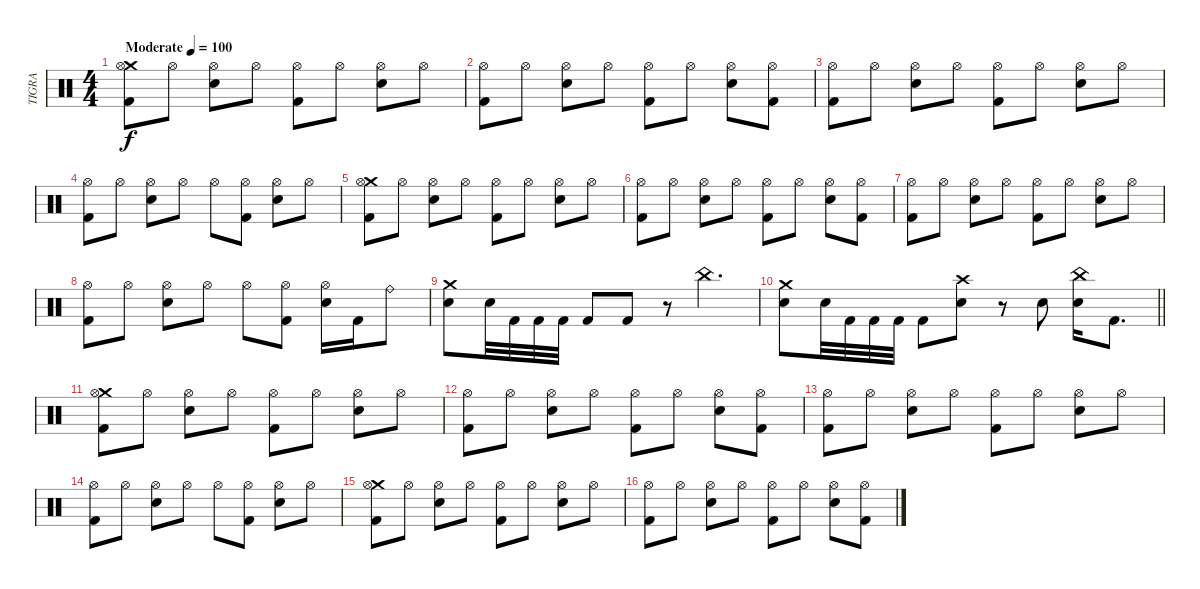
\track ("TIGRA" "TIGRA") {instrument percussion}
\staff {score}
\articulation defaults
\ts (4 4)
\tempo (100 "Moderate")
\clef neutral
\ks c
("Crash medium (hit)" "Hi-Hat (open)" "Kick (hit) 2").8{dy f} "Hi-Hat (open)".8 ("Hi-Hat (open)" "Snare (hit) 2").8 "Hi-Hat (open)".8 ("Hi-Hat (open)" "Kick (hit) 2").8 "Hi-Hat (open)".8 ("Hi-Hat (open)" "Snare (hit) 2").8 "Hi-Hat (open)".8 |
("Hi-Hat (open)" "Kick (hit) 2").8 "Hi-Hat (open)".8 ("Hi-Hat (open)" "Snare (hit) 2").8 "Hi-Hat (open)".8 ("Hi-Hat (open)" "Kick (hit) 2").8 "Hi-Hat (open)".8 ("Hi-Hat (open)" "Snare (hit) 2").8 ("Hi-Hat (open)" "Kick (hit) 2").8 |
("Hi-Hat (open)" "Kick (hit) 2").8 "Hi-Hat (open)".8 ("Hi-Hat (open)" "Snare (hit) 2").8 "Hi-Hat (open)".8 ("Hi-Hat (open)" "Kick (hit) 2").8 "Hi-Hat (open)".8 ("Hi-Hat (open)" "Snare (hit) 2").8 "Hi-Hat (open)".8 |
("Hi-Hat (open)" "Kick (hit) 2").8 "Hi-Hat (open)".8 ("Hi-Hat (open)" "Snare (hit) 2").8 "Hi-Hat (open)".8 "Hi-Hat (open)".8 ("Hi-Hat (open)" "Kick (hit) 2").8 ("Hi-Hat (open)" "Snare (hit) 2").8 "Hi-Hat (open)".8 |
("Crash medium (hit)" "Hi-Hat (open)" "Kick (hit) 2").8 "Hi-Hat (open)".8 ("Hi-Hat (open)" "Snare (hit) 2").8 "Hi-Hat (open)".8 ("Hi-Hat (open)" "Kick (hit) 2").8 "Hi-Hat (open)".8 ("Hi-Hat (open)" "Snare (hit) 2").8 "Hi-Hat (open)".8 |
("Hi-Hat (open)" "Kick (hit) 2").8 "Hi-Hat (open)".8 ("Hi-Hat (open)" "Snare (hit) 2").8 "Hi-Hat (open)".8 ("Hi-Hat (open)" "Kick (hit) 2").8 "Hi-Hat (open)".8 ("Hi-Hat (open)" "Snare (hit) 2").8 ("Hi-Hat (open)" "Kick (hit) 2").8 |
("Hi-Hat (open)" "Kick (hit) 2").8 "Hi-Hat (open)".8 ("Hi-Hat (open)" "Snare (hit) 2").8 "Hi-Hat (open)".8 ("Hi-Hat (open)" "Kick (hit) 2").8 "Hi-Hat (open)".8 ("Hi-Hat (open)" "Snare (hit) 2").8 "Hi-Hat (open)".8 |
("Hi-Hat (open)" "Kick (hit) 2").8 "Hi-Hat (open)".8 ("Hi-Hat (open)" "Snare (hit) 2").8 "Hi-Hat (open)".8 "Hi-Hat (open)".8 ("Hi-Hat (open)" "Kick (hit) 2").8 ("Hi-Hat (open)" "Snare (hit) 2").16 "Kick (hit) 2".16 "Ride (bell)".8 |
("Crash medium (hit)" "Snare (hit) 2").8 "Snare (hit) 2".32 "Kick (hit) 2".32 "Kick (hit) 2".32 "Kick (hit) 2".32 "Kick (hit) 2".8 "Kick (hit) 2".8 r.8 "China (hit)".4{d} |
\barLineRight lightlight
("Crash medium (hit)" "Snare (hit) 2").8 "Snare (hit) 2".32 "Kick (hit) 2".32 "Kick (hit) 2".32 "Kick (hit) 2".32 "Kick (hit) 2".8 ("Crash high (hit)" "Snare (hit) 2").8 r.8 "Snare (hit) 2".8 ("China (hit)" "Snare (hit) 2").16 "Kick (hit) 2".8{d} |
("Crash medium (hit)" "Hi-Hat (open)" "Kick (hit) 2").8 "Hi-Hat (open)".8 ("Hi-Hat (open)" "Snare (hit) 2").8 "Hi-Hat (open)".8 ("Hi-Hat (open)" "Kick (hit) 2").8 "Hi-Hat (open)".8 ("Hi-Hat (open)" "Snare (hit) 2").8 "Hi-Hat (open)".8 |
("Hi-Hat (open)" "Kick (hit) 2").8 "Hi-Hat (open)".8 ("Hi-Hat (open)" "Snare (hit) 2").8 "Hi-Hat (open)".8 ("Hi-Hat (open)" "Kick (hit) 2").8 "Hi-Hat (open)".8 ("Hi-Hat (open)" "Snare (hit) 2").8 ("Hi-Hat (open)" "Kick (hit) 2").8 |
("Hi-Hat (open)" "Kick (hit) 2").8 "Hi-Hat (open)".8 ("Hi-Hat (open)" "Snare (hit) 2").8 "Hi-Hat (open)".8 ("Hi-Hat (open)" "Kick (hit) 2").8 "Hi-Hat (open)".8 ("Hi-Hat (open)" "Snare (hit) 2").8 "Hi-Hat (open)".8 |
("Hi-Hat (open)" "Kick (hit) 2").8 "Hi-Hat (open)".8 ("Hi-Hat (open)" "Snare (hit) 2").8 "Hi-Hat (open)".8 "Hi-Hat (open)".8 ("Hi-Hat (open)" "Kick (hit) 2").8 ("Hi-Hat (open)" "Snare (hit) 2").8 "Hi-Hat (open)".8 |
("Crash medium (hit)" "Hi-Hat (open)" "Kick (hit) 2").8 "Hi-Hat (open)".8 ("Hi-Hat (open)" "Snare (hit) 2").8 "Hi-Hat (open)".8 ("Hi-Hat (open)" "Kick (hit) 2").8 "Hi-Hat (open)".8 ("Hi-Hat (open)" "Snare (hit) 2").8 "Hi-Hat (open)".8 |
("Hi-Hat (open)" "Kick (hit) 2").8 "Hi-Hat (open)".8 ("Hi-Hat (open)" "Snare (hit) 2").8 "Hi-Hat (open)".8 ("Hi-Hat (open)" "Kick (hit) 2").8 "Hi-Hat (open)".8 ("Hi-Hat (open)" "Snare (hit) 2").8 ("Hi-Hat (open)" "Kick (hit) 2").8
